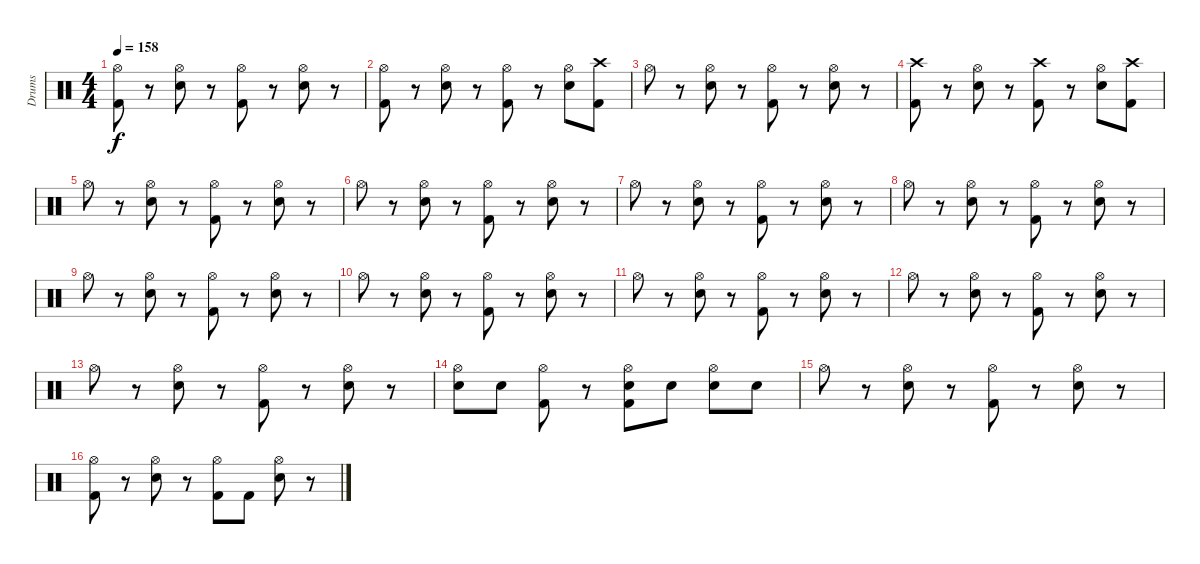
\track ("Drums" "Drums") {instrument percussion}
\staff {score}
\articulation defaults
\ts (4 4)
\tempo 158
\clef neutral
\ks c
("Hi-Hat (open)" "Kick (hit) 2").8{dy f} r.8 ("Hi-Hat (open)" "Snare (hit) 2").8 r.8 ("Hi-Hat (open)" "Kick (hit) 2").8 r.8 ("Hi-Hat (open)" "Snare (hit) 2").8 r.8 |
("Hi-Hat (open)" "Kick (hit) 2").8 r.8 ("Hi-Hat (open)" "Snare (hit) 2").8 r.8 ("Hi-Hat (open)" "Kick (hit) 2").8 r.8 ("Hi-Hat (open)" "Snare (hit) 2").8 ("Crash high (hit)" "Kick (hit) 2").8 |
"Hi-Hat (open)".8 r.8 ("Hi-Hat (open)" "Snare (hit) 2").8 r.8 ("Hi-Hat (open)" "Kick (hit) 2").8 r.8 ("Hi-Hat (open)" "Snare (hit) 2").8 r.8 |
("Crash high (hit)" "Kick (hit) 2").8 r.8 ("Hi-Hat (open)" "Snare (hit) 2").8 r.8 ("Crash high (hit)" "Kick (hit) 2").8 r.8 ("Hi-Hat (open)" "Snare (hit) 2").8 ("Crash high (hit)" "Kick (hit) 2").8 |
"Hi-Hat (open)".8 r.8 ("Hi-Hat (open)" "Snare (hit) 2").8 r.8 ("Hi-Hat (open)" "Kick (hit) 2").8 r.8 ("Hi-Hat (open)" "Snare (hit) 2").8 r.8 |
"Hi-Hat (open)".8 r.8 ("Hi-Hat (open)" "Snare (hit) 2").8 r.8 ("Hi-Hat (open)" "Kick (hit) 2").8 r.8 ("Hi-Hat (open)" "Snare (hit) 2").8 r.8 |
"Hi-Hat (open)".8 r.8 ("Hi-Hat (open)" "Snare (hit) 2").8 r.8 ("Hi-Hat (open)" "Kick (hit) 2").8 r.8 ("Hi-Hat (open)" "Snare (hit) 2").8 r.8 |
"Hi-Hat (open)".8 r.8 ("Hi-Hat (open)" "Snare (hit) 2").8 r.8 ("Hi-Hat (open)" "Kick (hit) 2").8 r.8 ("Hi-Hat (open)" "Snare (hit) 2").8 r.8 |
"Hi-Hat (open)".8 r.8 ("Hi-Hat (open)" "Snare (hit) 2").8 r.8 ("Hi-Hat (open)" "Kick (hit) 2").8 r.8 ("Hi-Hat (open)" "Snare (hit) 2").8 r.8 |
"Hi-Hat (open)".8 r.8 ("Hi-Hat (open)" "Snare (hit) 2").8 r.8 ("Hi-Hat (open)" "Kick (hit) 2").8 r.8 ("Hi-Hat (open)" "Snare (hit) 2").8 r.8 |
"Hi-Hat (open)".8 r.8 ("Hi-Hat (open)" "Snare (hit) 2").8 r.8 ("Hi-Hat (open)" "Kick (hit) 2").8 r.8 ("Hi-Hat (open)" "Snare (hit) 2").8 r.8 |
"Hi-Hat (open)".8 r.8 ("Hi-Hat (open)" "Snare (hit) 2").8 r.8 ("Hi-Hat (open)" "Kick (hit) 2").8 r.8 ("Hi-Hat (open)" "Snare (hit) 2").8 r.8 |
"Hi-Hat (open)".8 r.8 ("Hi-Hat (open)" "Snare (hit) 2").8 r.8 ("Hi-Hat (open)" "Kick (hit) 2").8 r.8 ("Hi-Hat (open)" "Snare (hit) 2").8 r.8 |
("Hi-Hat (open)" "Snare (hit) 2").8 "Snare (hit) 2".8 ("Hi-Hat (open)" "Kick (hit) 2").8 r.8 ("Hi-Hat (open)" "Snare (hit) 2" "Kick (hit) 2").8 "Snare (hit) 2".8 ("Hi-Hat (open)" "Snare (hit) 2").8 "Snare (hit) 2".8 |
"Hi-Hat (open)".8 r.8 ("Hi-Hat (open)" "Snare (hit) 2").8 r.8 ("Hi-Hat (open)" "Kick (hit) 2").8 r.8 ("Hi-Hat (open)" "Snare (hit) 2").8 r.8 |
("Hi-Hat (open)" "Kick (hit) 2").8 r.8 ("Hi-Hat (open)" "Snare (hit) 2").8 r.8 ("Hi-Hat (open)" "Kick (hit) 2").8 "Kick (hit) 2".8 ("Hi-Hat (open)" "Snare (hit) 2").8 r.8
